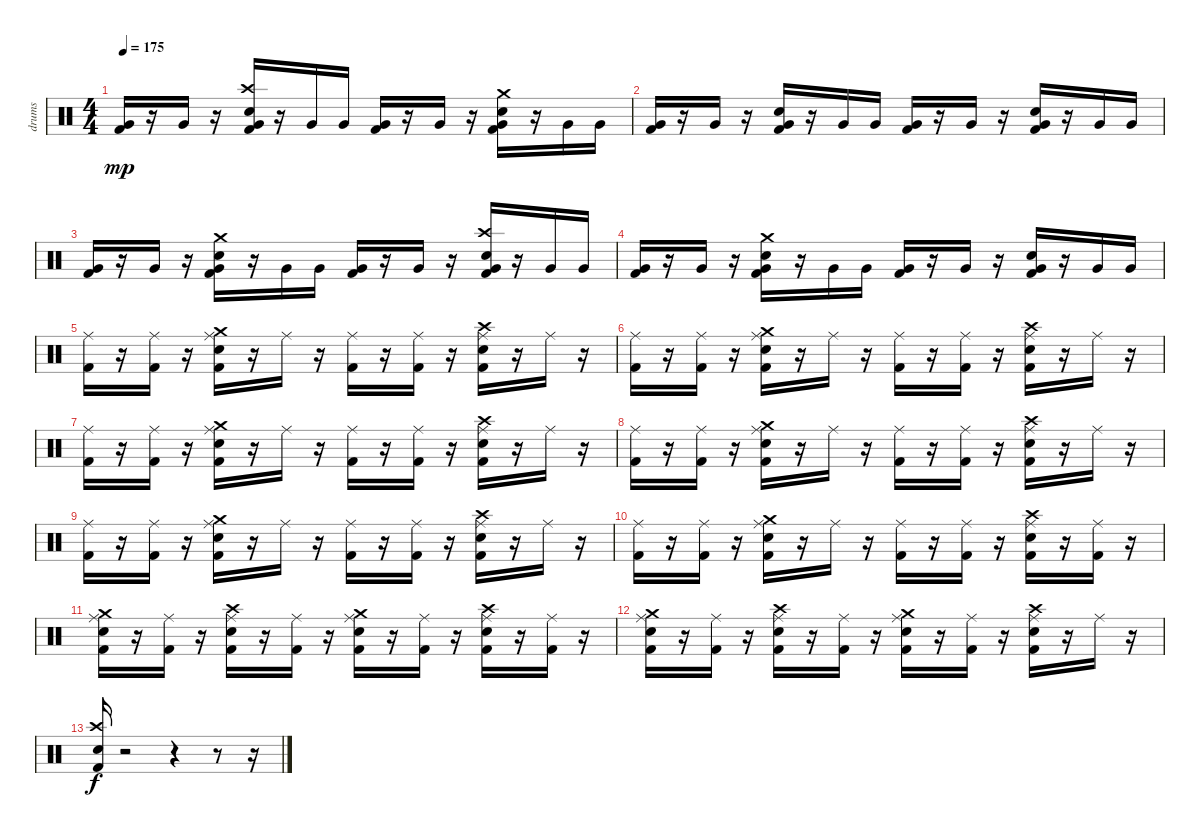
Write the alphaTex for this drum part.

\track ("drums" "drums") {instrument percussion}
\staff {score}
\articulation defaults
\ts (4 4)
\tempo 175
\clef neutral
\ks c
("Kick (hit) 2" "Very Low Tom (hit)").16{dy mp} r.16 "Very Low Tom (hit)".16 r.16 ("Crash high (hit)" "Electric Snare (hit)" "Kick (hit) 2" "Very Low Tom (hit)").16 r.16 "Very Low Tom (hit)".16 "Very Low Tom (hit)".16 ("Kick (hit) 2" "Very Low Tom (hit)").16 r.16 "Very Low Tom (hit)".16 r.16 ("Crash medium (hit)" "Electric Snare (hit)" "Kick (hit) 2" "Very Low Tom (hit)").16 r.16 "Very Low Tom (hit)".16 "Very Low Tom (hit)".16 |
("Kick (hit) 2" "Very Low Tom (hit)").16 r.16 "Very Low Tom (hit)".16 r.16 ("Electric Snare (hit)" "Kick (hit) 2" "Very Low Tom (hit)").16 r.16 "Very Low Tom (hit)".16 "Very Low Tom (hit)".16 ("Kick (hit) 2" "Very Low Tom (hit)").16 r.16 "Very Low Tom (hit)".16 r.16 ("Electric Snare (hit)" "Kick (hit) 2" "Very Low Tom (hit)").16 r.16 "Very Low Tom (hit)".16 "Very Low Tom (hit)".16 |
("Kick (hit) 2" "Very Low Tom (hit)").16 r.16 "Very Low Tom (hit)".16 r.16 ("Crash medium (hit)" "Electric Snare (hit)" "Kick (hit) 2" "Very Low Tom (hit)").16 r.16 "Very Low Tom (hit)".16 "Very Low Tom (hit)".16 ("Kick (hit) 2" "Very Low Tom (hit)").16 r.16 "Very Low Tom (hit)".16 r.16 ("Crash high (hit)" "Electric Snare (hit)" "Kick (hit) 2" "Very Low Tom (hit)").16 r.16 "Very Low Tom (hit)".16 "Very Low Tom (hit)".16 |
("Very Low Tom (hit)" "Kick (hit) 2").16 r.16 "Very Low Tom (hit)".16 r.16 ("Very Low Tom (hit)" "Crash medium (hit)" "Electric Snare (hit)" "Kick (hit) 2").16 r.16 "Very Low Tom (hit)".16 "Very Low Tom (hit)".16 ("Very Low Tom (hit)" "Kick (hit) 2").16 r.16 "Very Low Tom (hit)".16 r.16 ("Very Low Tom (hit)" "Electric Snare (hit)" "Kick (hit) 2").16 r.16 "Very Low Tom (hit)".16 "Very Low Tom (hit)".16 |
("Ride (middle)" "Kick (hit) 2").16 r.16 ("Ride (middle)" "Kick (hit) 2").16 r.16 ("Ride (middle)" "Crash medium (hit)" "Electric Snare (hit)" "Kick (hit) 2").16 r.16 "Ride (middle)".16 r.16 ("Ride (middle)" "Kick (hit) 2").16 r.16 ("Ride (middle)" "Kick (hit) 2").16 r.16 ("Ride (middle)" "Crash high (hit)" "Kick (hit) 2" "Electric Snare (hit)").16 r.16 "Ride (middle)".16 r.16 |
("Kick (hit) 2" "Ride (middle)").16 r.16 ("Kick (hit) 2" "Ride (middle)").16 r.16 ("Crash medium (hit)" "Electric Snare (hit)" "Kick (hit) 2" "Ride (middle)").16 r.16 "Ride (middle)".16 r.16 ("Kick (hit) 2" "Ride (middle)").16 r.16 ("Kick (hit) 2" "Ride (middle)").16 r.16 ("Crash high (hit)" "Kick (hit) 2" "Electric Snare (hit)" "Ride (middle)").16 r.16 "Ride (middle)".16 r.16 |
("Kick (hit) 2" "Ride (middle)").16 r.16 ("Kick (hit) 2" "Ride (middle)").16 r.16 ("Crash medium (hit)" "Electric Snare (hit)" "Kick (hit) 2" "Ride (middle)").16 r.16 "Ride (middle)".16 r.16 ("Kick (hit) 2" "Ride (middle)").16 r.16 ("Kick (hit) 2" "Ride (middle)").16 r.16 ("Crash high (hit)" "Kick (hit) 2" "Electric Snare (hit)" "Ride (middle)").16 r.16 "Ride (middle)".16 r.16 |
("Kick (hit) 2" "Ride (middle)").16 r.16 ("Kick (hit) 2" "Ride (middle)").16 r.16 ("Crash medium (hit)" "Electric Snare (hit)" "Kick (hit) 2" "Ride (middle)").16 r.16 "Ride (middle)".16 r.16 ("Kick (hit) 2" "Ride (middle)").16 r.16 ("Kick (hit) 2" "Ride (middle)").16 r.16 ("Crash high (hit)" "Kick (hit) 2" "Electric Snare (hit)" "Ride (middle)").16 r.16 "Ride (middle)".16 r.16 |
("Kick (hit) 2" "Ride (middle)").16 r.16 ("Kick (hit) 2" "Ride (middle)").16 r.16 ("Crash medium (hit)" "Electric Snare (hit)" "Kick (hit) 2" "Ride (middle)").16 r.16 "Ride (middle)".16 r.16 ("Kick (hit) 2" "Ride (middle)").16 r.16 ("Kick (hit) 2" "Ride (middle)").16 r.16 ("Crash high (hit)" "Kick (hit) 2" "Electric Snare (hit)" "Ride (middle)").16 r.16 "Ride (middle)".16 r.16 |
("Kick (hit) 2" "Ride (middle)").16 r.16 ("Kick (hit) 2" "Ride (middle)").16 r.16 ("Crash medium (hit)" "Electric Snare (hit)" "Kick (hit) 2" "Ride (middle)").16 r.16 "Ride (middle)".16 r.16 ("Kick (hit) 2" "Ride (middle)").16 r.16 ("Kick (hit) 2" "Ride (middle)").16 r.16 ("Crash high (hit)" "Kick (hit) 2" "Electric Snare (hit)" "Ride (middle)").16 r.16 ("Kick (hit) 2" "Ride (middle)").16 r.16 |
("Crash medium (hit)" "Electric Snare (hit)" "Kick (hit) 2" "Ride (middle)").16 r.16 ("Kick (hit) 2" "Ride (middle)").16 r.16 ("Crash high (hit)" "Electric Snare (hit)" "Kick (hit) 2" "Ride (middle)").16 r.16 ("Kick (hit) 2" "Ride (middle)").16 r.16 ("Crash medium (hit)" "Electric Snare (hit)" "Kick (hit) 2" "Ride (middle)").16 r.16 ("Kick (hit) 2" "Ride (middle)").16 r.16 ("Crash high (hit)" "Kick (hit) 2" "Electric Snare (hit)" "Ride (middle)").16 r.16 ("Kick (hit) 2" "Ride (middle)").16 r.16 |
("Crash medium (hit)" "Electric Snare (hit)" "Kick (hit) 2" "Ride (middle)").16 r.16 ("Kick (hit) 2" "Ride (middle)").16 r.16 ("Crash high (hit)" "Electric Snare (hit)" "Kick (hit) 2" "Ride (middle)").16 r.16 ("Kick (hit) 2" "Ride (middle)").16 r.16 ("Crash medium (hit)" "Electric Snare (hit)" "Kick (hit) 2" "Ride (middle)").16 r.16 ("Kick (hit) 2" "Ride (middle)").16 r.16 ("Crash high (hit)" "Kick (hit) 2" "Electric Snare (hit)" "Ride (middle)").16 r.16 "Ride (middle)".16 r.16 |
("Kick (hit) 2" "Electric Snare (hit)" "Crash high (hit)").16{dy f} r.2 r.4 r.8 r.16
